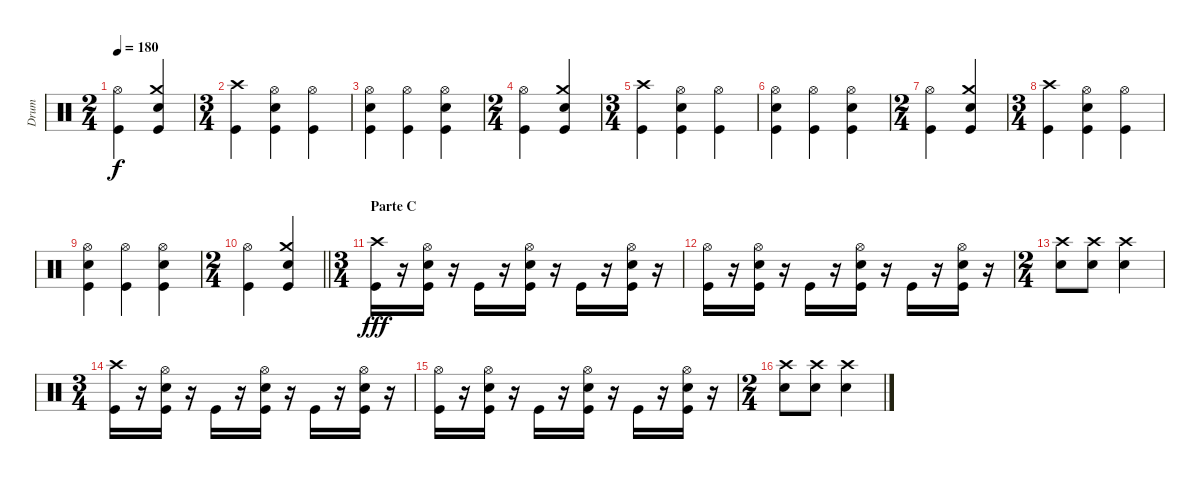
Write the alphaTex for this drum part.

\track ("Drum" "Drum") {instrument percussion}
\staff {score}
\articulation defaults
\ts (2 4)
\tempo 180
\clef neutral
\ks c
("Hi-Hat (open)" "Kick (hit)").4{dy f} ("Crash medium (hit)" "Snare (hit) 2" "Kick (hit)").4 |
\ts (3 4)
("Crash high (hit)" "Kick (hit)").4 ("Hi-Hat (open)" "Snare (hit) 2" "Kick (hit)").4 ("Hi-Hat (open)" "Kick (hit)").4 |
("Hi-Hat (open)" "Snare (hit) 2" "Kick (hit)").4 ("Hi-Hat (open)" "Kick (hit)").4 ("Hi-Hat (open)" "Snare (hit) 2" "Kick (hit)").4 |
\ts (2 4)
("Hi-Hat (open)" "Kick (hit)").4 ("Crash medium (hit)" "Snare (hit) 2" "Kick (hit)").4 |
\ts (3 4)
("Crash high (hit)" "Kick (hit)").4 ("Hi-Hat (open)" "Snare (hit) 2" "Kick (hit)").4 ("Hi-Hat (open)" "Kick (hit)").4 |
("Hi-Hat (open)" "Snare (hit) 2" "Kick (hit)").4 ("Hi-Hat (open)" "Kick (hit)").4 ("Hi-Hat (open)" "Snare (hit) 2" "Kick (hit)").4 |
\ts (2 4)
("Hi-Hat (open)" "Kick (hit)").4 ("Crash medium (hit)" "Snare (hit) 2" "Kick (hit)").4 |
\ts (3 4)
("Crash high (hit)" "Kick (hit)").4 ("Hi-Hat (open)" "Snare (hit) 2" "Kick (hit)").4 ("Hi-Hat (open)" "Kick (hit)").4 |
("Hi-Hat (open)" "Snare (hit) 2" "Kick (hit)").4 ("Hi-Hat (open)" "Kick (hit)").4 ("Hi-Hat (open)" "Snare (hit) 2" "Kick (hit)").4 |
\ts (2 4)
\barLineRight lightlight
("Hi-Hat (open)" "Kick (hit)").4 ("Crash medium (hit)" "Snare (hit) 2" "Kick (hit)").4 |
\ts (3 4)
\section ("" "Parte C")
("Crash high (hit)" "Kick (hit)").16{dy fff} r.16 ("Hi-Hat (open)" "Snare (hit) 2" "Kick (hit)").16 r.16 "Kick (hit)".16 r.16 ("Hi-Hat (open)" "Snare (hit) 2" "Kick (hit)").16 r.16 "Kick (hit)".16 r.16 ("Hi-Hat (open)" "Snare (hit) 2" "Kick (hit)").16 r.16 |
("Hi-Hat (open)" "Kick (hit)").16 r.16 ("Hi-Hat (open)" "Snare (hit) 2" "Kick (hit)").16 r.16 "Kick (hit)".16 r.16 ("Hi-Hat (open)" "Snare (hit) 2" "Kick (hit)").16 r.16 "Kick (hit)".16 r.16 ("Hi-Hat (open)" "Snare (hit) 2" "Kick (hit)").16 r.16 |
\ts (2 4)
("Crash high (hit)" "Snare (hit) 2").8 ("Crash high (hit)" "Snare (hit) 2").8 ("Crash high (hit)" "Snare (hit) 2").4 |
\ts (3 4)
("Crash high (hit)" "Kick (hit)").16 r.16 ("Hi-Hat (open)" "Snare (hit) 2" "Kick (hit)").16 r.16 "Kick (hit)".16 r.16 ("Hi-Hat (open)" "Snare (hit) 2" "Kick (hit)").16 r.16 "Kick (hit)".16 r.16 ("Hi-Hat (open)" "Snare (hit) 2" "Kick (hit)").16 r.16 |
("Hi-Hat (open)" "Kick (hit)").16 r.16 ("Hi-Hat (open)" "Snare (hit) 2" "Kick (hit)").16 r.16 "Kick (hit)".16 r.16 ("Hi-Hat (open)" "Snare (hit) 2" "Kick (hit)").16 r.16 "Kick (hit)".16 r.16 ("Hi-Hat (open)" "Snare (hit) 2" "Kick (hit)").16 r.16 |
\ts (2 4)
("Crash high (hit)" "Snare (hit) 2").8 ("Crash high (hit)" "Snare (hit) 2").8 ("Crash high (hit)" "Snare (hit) 2").4
